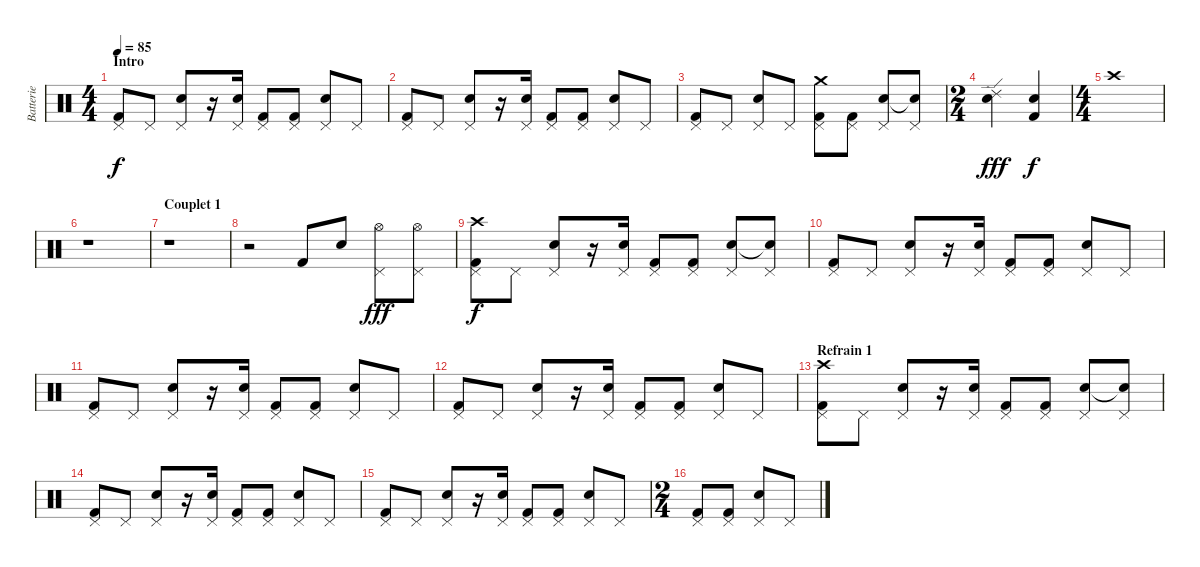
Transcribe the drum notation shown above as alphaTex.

\track ("Batterie" "Batterie") {instrument percussion}
\staff {score}
\articulation defaults
\ts (4 4)
\section ("" "Intro")
\tempo 85
\clef neutral
\ks c
("Pedal Hi-Hat (hit)" "Kick (hit) 2").8{dy f} "Pedal Hi-Hat (hit)".8 ("Pedal Hi-Hat (hit)" "Electric Snare (hit)").8 r.16 ("Pedal Hi-Hat (hit)" "Electric Snare (hit)").16 ("Pedal Hi-Hat (hit)" "Kick (hit) 2").8 ("Pedal Hi-Hat (hit)" "Kick (hit) 2").8 ("Pedal Hi-Hat (hit)" "Electric Snare (hit)").8 "Pedal Hi-Hat (hit)".8 |
("Pedal Hi-Hat (hit)" "Kick (hit) 2").8 "Pedal Hi-Hat (hit)".8 ("Pedal Hi-Hat (hit)" "Electric Snare (hit)").8 r.16 ("Pedal Hi-Hat (hit)" "Electric Snare (hit)").16 ("Pedal Hi-Hat (hit)" "Kick (hit) 2").8 ("Pedal Hi-Hat (hit)" "Kick (hit) 2").8 ("Pedal Hi-Hat (hit)" "Electric Snare (hit)").8 "Pedal Hi-Hat (hit)".8 |
("Pedal Hi-Hat (hit)" "Kick (hit) 2").8 "Pedal Hi-Hat (hit)".8 ("Pedal Hi-Hat (hit)" "Electric Snare (hit)").8 "Pedal Hi-Hat (hit)".8 ("Pedal Hi-Hat (hit)" "Crash medium (hit)" "Kick (hit) 2").8 ("Pedal Hi-Hat (hit)" "Kick (hit) 2").8 ("Pedal Hi-Hat (hit)" "Electric Snare (hit)").8 ("Pedal Hi-Hat (hit)" "Snare (hit)"{t}).8 |
\ts (2 4)
("Ride (edge) 2" "Electric Snare (hit)").4{dy fff} ("Kick (hit) 2" "Electric Snare (hit)").4{dy f} |
\ts (4 4)
"Crash high (hit)".1 |
r.1 |
\section ("" "Couplet 1")
r.1 |
r.2 "Kick (hit) 2".8 "Electric Snare (hit)".8 ("Hi-Hat (open)" "Pedal Hi-Hat (hit)").8{dy fff} ("Hi-Hat (open)" "Pedal Hi-Hat (hit)").8 |
("Pedal Hi-Hat (hit)" "Crash high (hit)" "Kick (hit) 2").8{dy f} "Pedal Hi-Hat (hit)".8 ("Pedal Hi-Hat (hit)" "Electric Snare (hit)").8 r.16 ("Pedal Hi-Hat (hit)" "Electric Snare (hit)").16 ("Pedal Hi-Hat (hit)" "Kick (hit) 2").8 ("Pedal Hi-Hat (hit)" "Kick (hit) 2").8 ("Pedal Hi-Hat (hit)" "Electric Snare (hit)").8 ("Pedal Hi-Hat (hit)" "Snare (hit)"{t}).8 |
("Pedal Hi-Hat (hit)" "Kick (hit) 2").8 "Pedal Hi-Hat (hit)".8 ("Pedal Hi-Hat (hit)" "Electric Snare (hit)").8 r.16 ("Pedal Hi-Hat (hit)" "Electric Snare (hit)").16 ("Pedal Hi-Hat (hit)" "Kick (hit) 2").8 ("Pedal Hi-Hat (hit)" "Kick (hit) 2").8 ("Pedal Hi-Hat (hit)" "Electric Snare (hit)").8 "Pedal Hi-Hat (hit)".8 |
("Pedal Hi-Hat (hit)" "Kick (hit) 2").8 "Pedal Hi-Hat (hit)".8 ("Pedal Hi-Hat (hit)" "Electric Snare (hit)").8 r.16 ("Pedal Hi-Hat (hit)" "Electric Snare (hit)").16 ("Pedal Hi-Hat (hit)" "Kick (hit) 2").8 ("Pedal Hi-Hat (hit)" "Kick (hit) 2").8 ("Pedal Hi-Hat (hit)" "Electric Snare (hit)").8 "Pedal Hi-Hat (hit)".8 |
("Pedal Hi-Hat (hit)" "Kick (hit) 2").8 "Pedal Hi-Hat (hit)".8 ("Pedal Hi-Hat (hit)" "Electric Snare (hit)").8 r.16 ("Pedal Hi-Hat (hit)" "Electric Snare (hit)").16 ("Pedal Hi-Hat (hit)" "Kick (hit) 2").8 ("Pedal Hi-Hat (hit)" "Kick (hit) 2").8 ("Pedal Hi-Hat (hit)" "Electric Snare (hit)").8 "Pedal Hi-Hat (hit)".8 |
\section ("" "Refrain 1")
("Pedal Hi-Hat (hit)" "Crash high (hit)" "Kick (hit) 2").8 "Pedal Hi-Hat (hit)".8 ("Pedal Hi-Hat (hit)" "Electric Snare (hit)").8 r.16 ("Pedal Hi-Hat (hit)" "Electric Snare (hit)").16 ("Pedal Hi-Hat (hit)" "Kick (hit) 2").8 ("Pedal Hi-Hat (hit)" "Kick (hit) 2").8 ("Pedal Hi-Hat (hit)" "Electric Snare (hit)").8 ("Pedal Hi-Hat (hit)" "Snare (hit)"{t}).8 |
("Pedal Hi-Hat (hit)" "Kick (hit) 2").8 "Pedal Hi-Hat (hit)".8 ("Pedal Hi-Hat (hit)" "Electric Snare (hit)").8 r.16 ("Pedal Hi-Hat (hit)" "Electric Snare (hit)").16 ("Pedal Hi-Hat (hit)" "Kick (hit) 2").8 ("Pedal Hi-Hat (hit)" "Kick (hit) 2").8 ("Pedal Hi-Hat (hit)" "Electric Snare (hit)").8 "Pedal Hi-Hat (hit)".8 |
("Pedal Hi-Hat (hit)" "Kick (hit) 2").8 "Pedal Hi-Hat (hit)".8 ("Pedal Hi-Hat (hit)" "Electric Snare (hit)").8 r.16 ("Pedal Hi-Hat (hit)" "Electric Snare (hit)").16 ("Pedal Hi-Hat (hit)" "Kick (hit) 2").8 ("Pedal Hi-Hat (hit)" "Kick (hit) 2").8 ("Pedal Hi-Hat (hit)" "Electric Snare (hit)").8 "Pedal Hi-Hat (hit)".8 |
\ts (2 4)
("Pedal Hi-Hat (hit)" "Kick (hit) 2").8 ("Pedal Hi-Hat (hit)" "Kick (hit) 2").8 ("Pedal Hi-Hat (hit)" "Electric Snare (hit)").8 "Pedal Hi-Hat (hit)".8
